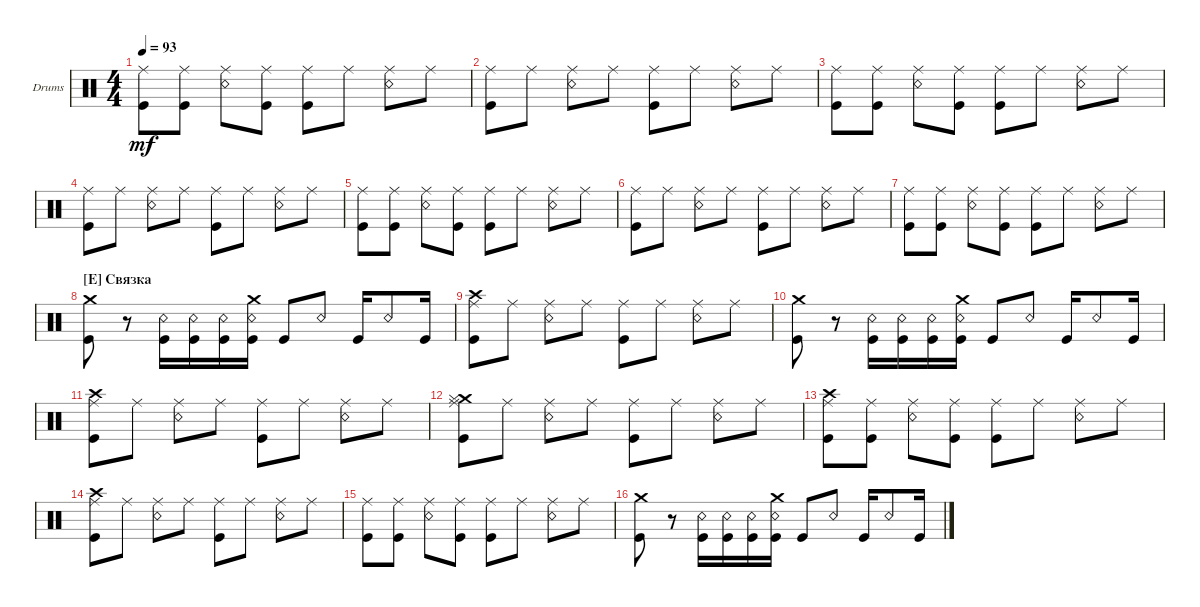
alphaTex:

\bracketExtendMode groupsimilarinstruments
\firstSystemTrackNameOrientation horizontal
\otherSystemsTrackNameOrientation horizontal
\track ("Drumkit" "Drums") {instrument percussion}
\staff {score}
\articulation defaults
\ts (4 4)
\tempo 93
\clef neutral
\ks c
("Kick (hit)" "Ride (middle)").8{dy mf} ("Kick (hit)" "Ride (middle)").8 ("Snare (rim shot)" "Ride (middle)").8 ("Kick (hit)" "Ride (middle)").8 ("Ride (middle)" "Kick (hit)").8 "Ride (middle)".8 ("Ride (middle)" "Snare (rim shot)").8 "Ride (middle)".8 |
("Kick (hit)" "Ride (middle)").8 "Ride (middle)".8 ("Ride (middle)" "Snare (rim shot)").8 "Ride (middle)".8 ("Ride (middle)" "Kick (hit)").8 "Ride (middle)".8 ("Ride (middle)" "Snare (rim shot)").8 "Ride (middle)".8 |
("Kick (hit)" "Ride (middle)").8 ("Kick (hit)" "Ride (middle)").8 ("Snare (rim shot)" "Ride (middle)").8 ("Kick (hit)" "Ride (middle)").8 ("Ride (middle)" "Kick (hit)").8 "Ride (middle)".8 ("Ride (middle)" "Snare (rim shot)").8 "Ride (middle)".8 |
("Kick (hit)" "Ride (middle)").8 "Ride (middle)".8 ("Ride (middle)" "Snare (rim shot)").8 "Ride (middle)".8 ("Ride (middle)" "Kick (hit)").8 "Ride (middle)".8 ("Ride (middle)" "Snare (rim shot)").8 "Ride (middle)".8 |
("Kick (hit)" "Ride (middle)").8 ("Kick (hit)" "Ride (middle)").8 ("Snare (rim shot)" "Ride (middle)").8 ("Kick (hit)" "Ride (middle)").8 ("Ride (middle)" "Kick (hit)").8 "Ride (middle)".8 ("Ride (middle)" "Snare (rim shot)").8 "Ride (middle)".8 |
("Kick (hit)" "Ride (middle)").8 "Ride (middle)".8 ("Ride (middle)" "Snare (rim shot)").8 "Ride (middle)".8 ("Ride (middle)" "Kick (hit)").8 "Ride (middle)".8 ("Ride (middle)" "Snare (rim shot)").8 "Ride (middle)".8 |
("Kick (hit)" "Ride (middle)").8 ("Kick (hit)" "Ride (middle)").8 ("Snare (rim shot)" "Ride (middle)").8 ("Kick (hit)" "Ride (middle)").8 ("Ride (middle)" "Kick (hit)").8 "Ride (middle)".8 ("Ride (middle)" "Snare (rim shot)").8 "Ride (middle)".8 |
\section ("E" "Связка")
("Kick (hit)" "Crash medium (hit)").8 r.8 ("Kick (hit)" "Snare (rim shot)").16 ("Kick (hit)" "Snare (rim shot)").16 ("Kick (hit)" "Snare (rim shot)").16 ("Crash medium (hit)" "Snare (rim shot)" "Kick (hit)").16 "Kick (hit)".8 "Snare (rim shot)".8 "Kick (hit)".16 "Snare (rim shot)".8 "Kick (hit)".16 |
("Kick (hit)" "Ride (middle)" "Crash high (hit)").8 "Ride (middle)".8 ("Ride (middle)" "Snare (rim shot)").8 "Ride (middle)".8 ("Ride (middle)" "Kick (hit)").8 "Ride (middle)".8 ("Ride (middle)" "Snare (rim shot)").8 "Ride (middle)".8 |
("Kick (hit)" "Crash medium (hit)").8 r.8 ("Kick (hit)" "Snare (rim shot)").16 ("Kick (hit)" "Snare (rim shot)").16 ("Kick (hit)" "Snare (rim shot)").16 ("Crash medium (hit)" "Snare (rim shot)" "Kick (hit)").16 "Kick (hit)".8 "Snare (rim shot)".8 "Kick (hit)".16 "Snare (rim shot)".8 "Kick (hit)".16 |
("Kick (hit)" "Ride (middle)" "Crash high (hit)").8 "Ride (middle)".8 ("Ride (middle)" "Snare (rim shot)").8 "Ride (middle)".8 ("Ride (middle)" "Kick (hit)").8 "Ride (middle)".8 ("Ride (middle)" "Snare (rim shot)").8 "Ride (middle)".8 |
("Kick (hit)" "Ride (middle)" "Crash medium (hit)" "Hi-Hat (closed)").8 "Ride (middle)".8 ("Ride (middle)" "Snare (rim shot)").8 "Ride (middle)".8 ("Ride (middle)" "Kick (hit)").8 "Ride (middle)".8 ("Ride (middle)" "Snare (rim shot)").8 "Ride (middle)".8 |
("Kick (hit)" "Ride (middle)" "Crash high (hit)").8 ("Kick (hit)" "Ride (middle)").8 ("Snare (rim shot)" "Ride (middle)").8 ("Kick (hit)" "Ride (middle)").8 ("Ride (middle)" "Kick (hit)").8 "Ride (middle)".8 ("Ride (middle)" "Snare (rim shot)").8 "Ride (middle)".8 |
("Kick (hit)" "Ride (middle)" "Crash high (hit)").8 "Ride (middle)".8 ("Ride (middle)" "Snare (rim shot)").8 "Ride (middle)".8 ("Ride (middle)" "Kick (hit)").8 "Ride (middle)".8 ("Ride (middle)" "Snare (rim shot)").8 "Ride (middle)".8 |
("Kick (hit)" "Ride (middle)").8 ("Kick (hit)" "Ride (middle)").8 ("Snare (rim shot)" "Ride (middle)").8 ("Kick (hit)" "Ride (middle)").8 ("Ride (middle)" "Kick (hit)").8 "Ride (middle)".8 ("Ride (middle)" "Snare (rim shot)").8 "Ride (middle)".8 |
("Kick (hit)" "Crash medium (hit)").8 r.8 ("Kick (hit)" "Snare (rim shot)").16 ("Kick (hit)" "Snare (rim shot)").16 ("Kick (hit)" "Snare (rim shot)").16 ("Crash medium (hit)" "Snare (rim shot)" "Kick (hit)").16 "Kick (hit)".8 "Snare (rim shot)".8 "Kick (hit)".16 "Snare (rim shot)".8 "Kick (hit)".16
